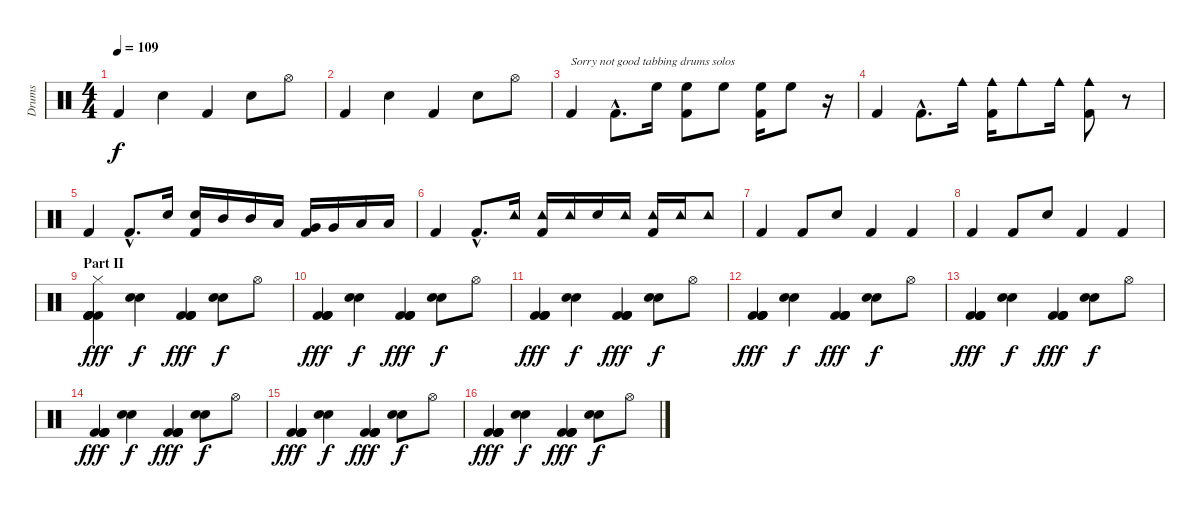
\track ("Drums" "Drums") {instrument percussion}
\staff {score}
\articulation defaults
\ts (4 4)
\tempo 109
\clef neutral
\ks c "Kick (hit) 2".4{dy f} "Snare (hit) 2".4 "Kick (hit) 2".4 "Snare (hit) 2".8 "Hi-Hat (open)".8
|
"Kick (hit) 2".4 "Snare (hit) 2".4 "Kick (hit) 2".4 "Snare (hit) 2".8 "Hi-Hat (open)".8 |
"Kick (hit) 2".4{txt "Sorry not good tabbing drums solos"} "Kick (hit) 2"{hac}.8{d} "High Floor Tom (hit)".16 ("High Floor Tom (hit)" "Kick (hit) 2").8 "High Floor Tom (hit)".8 ("High Floor Tom (hit)" "Kick (hit) 2").16 "High Floor Tom (hit)".8 r.16 |
"Kick (hit) 2".4 "Kick (hit) 2"{hac}.8{d} "Cowbell medium (hit)".16 ("Cowbell medium (hit)" "Kick (hit) 2").16 "Cowbell medium (hit)".8 "Cowbell medium (hit)".16 ("Cowbell medium (hit)" "Kick (hit) 2").8 r.8 |
"Kick (hit) 2".4 "Kick (hit) 2"{hac}.8{d} "Snare (hit) 2".16 ("Snare (hit) 2" "Kick (hit) 2").16 "Mid Tom (hit)".16 "Mid Tom (hit)".16 "Low Tom (hit)".16 ("Very Low Tom (hit)" "Kick (hit) 2").16 "Very Low Tom (hit)".16 "Low Floor Tom (hit)".16 "Low Floor Tom (hit)".16 |
"Kick (hit) 2".4 "Kick (hit) 2"{hac}.8{d} "Tambourine (hit)".16 ("Tambourine (hit)" "Kick (hit) 2").16 "Tambourine (hit)".16 "Snare (hit) 2".16 "Tambourine (hit)".16 ("Tambourine (hit)" "Kick (hit) 2").16 "Tambourine (hit)".16 "Tambourine (hit)".8 |
"Kick (hit) 2".4 "Kick (hit) 2".8 "Snare (hit) 2".8 "Kick (hit) 2".4 "Kick (hit) 2".4 |
"Kick (hit) 2".4 "Kick (hit) 2".8 "Snare (hit) 2".8 "Kick (hit) 2".4 "Kick (hit) 2".4 |
\section ("" "Part II")
("Hi-Hat (closed)" "Kick (hit) 2" "Kick (hit) 2" "Kick (hit) 2" "Kick (hit) 2").4{dy fff volume 16} ("Snare (hit) 2" "Electric Snare (hit)").4{dy f} ("Kick (hit) 2" "Kick (hit) 2" "Kick (hit) 2" "Kick (hit) 2").4{dy fff} ("Snare (hit) 2" "Electric Snare (hit)").8{dy f} "Hi-Hat (open)".8 |
("Kick (hit) 2" "Kick (hit) 2" "Kick (hit) 2" "Kick (hit) 2").4{dy fff volume 16} ("Snare (hit) 2" "Electric Snare (hit)").4{dy f} ("Kick (hit) 2" "Kick (hit) 2" "Kick (hit) 2" "Kick (hit) 2").4{dy fff} ("Snare (hit) 2" "Electric Snare (hit)").8{dy f} "Hi-Hat (open)".8 |
("Kick (hit) 2" "Kick (hit) 2" "Kick (hit) 2" "Kick (hit) 2").4{dy fff volume 16} ("Snare (hit) 2" "Electric Snare (hit)").4{dy f} ("Kick (hit) 2" "Kick (hit) 2" "Kick (hit) 2" "Kick (hit) 2").4{dy fff} ("Snare (hit) 2" "Electric Snare (hit)").8{dy f} "Hi-Hat (open)".8 |
("Kick (hit) 2" "Kick (hit) 2" "Kick (hit) 2" "Kick (hit) 2").4{dy fff volume 16} ("Snare (hit) 2" "Electric Snare (hit)").4{dy f} ("Kick (hit) 2" "Kick (hit) 2" "Kick (hit) 2" "Kick (hit) 2").4{dy fff} ("Snare (hit) 2" "Electric Snare (hit)").8{dy f} "Hi-Hat (open)".8 |
("Kick (hit) 2" "Kick (hit) 2" "Kick (hit) 2" "Kick (hit) 2").4{dy fff volume 16} ("Snare (hit) 2" "Electric Snare (hit)").4{dy f} ("Kick (hit) 2" "Kick (hit) 2" "Kick (hit) 2" "Kick (hit) 2").4{dy fff} ("Snare (hit) 2" "Electric Snare (hit)").8{dy f} "Hi-Hat (open)".8 |
("Kick (hit) 2" "Kick (hit) 2" "Kick (hit) 2" "Kick (hit) 2").4{dy fff volume 16} ("Snare (hit) 2" "Electric Snare (hit)").4{dy f} ("Kick (hit) 2" "Kick (hit) 2" "Kick (hit) 2" "Kick (hit) 2").4{dy fff} ("Snare (hit) 2" "Electric Snare (hit)").8{dy f} "Hi-Hat (open)".8 |
("Kick (hit) 2" "Kick (hit) 2" "Kick (hit) 2" "Kick (hit) 2").4{dy fff volume 16} ("Snare (hit) 2" "Electric Snare (hit)").4{dy f} ("Kick (hit) 2" "Kick (hit) 2" "Kick (hit) 2" "Kick (hit) 2").4{dy fff} ("Snare (hit) 2" "Electric Snare (hit)").8{dy f} "Hi-Hat (open)".8 |
("Kick (hit) 2" "Kick (hit) 2" "Kick (hit) 2" "Kick (hit) 2").4{dy fff volume 16} ("Snare (hit) 2" "Electric Snare (hit)").4{dy f} ("Kick (hit) 2" "Kick (hit) 2" "Kick (hit) 2" "Kick (hit) 2").4{dy fff} ("Snare (hit) 2" "Electric Snare (hit)").8{dy f} "Hi-Hat (open)".8
